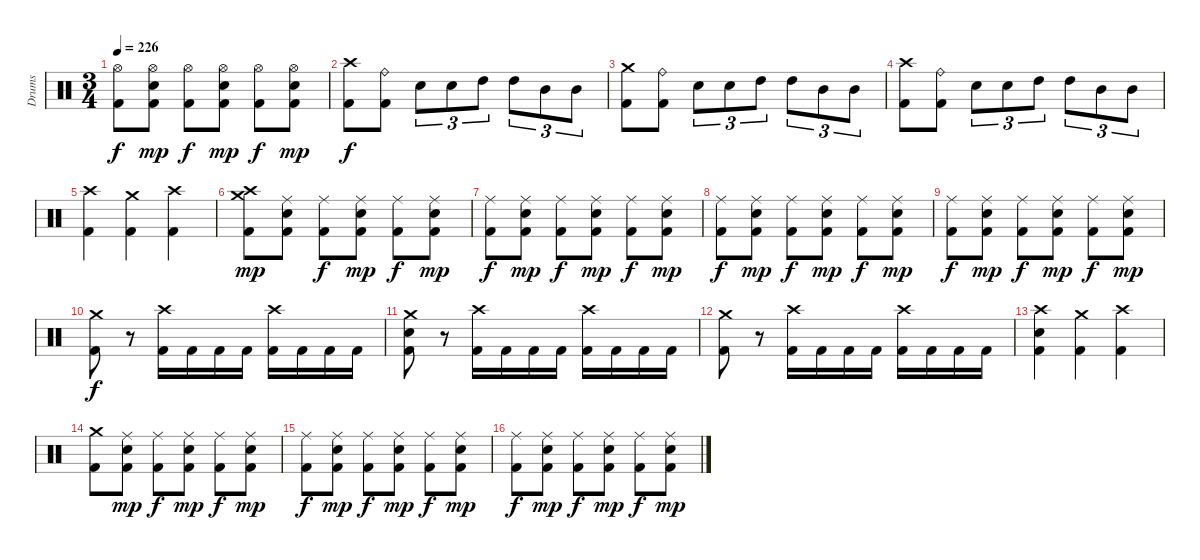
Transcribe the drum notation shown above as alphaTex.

\track ("Drums" "Drums") {instrument percussion}
\staff {score}
\articulation defaults
\ts (3 4)
\tempo 226
\clef neutral
\ks c
("Hi-Hat (open)" "Kick (hit) 2").8{dy f} ("Hi-Hat (open)" "Electric Snare (hit)" "Kick (hit) 2").8{dy mp} ("Hi-Hat (open)" "Kick (hit) 2").8{dy f} ("Hi-Hat (open)" "Electric Snare (hit)" "Kick (hit) 2").8{dy mp} ("Hi-Hat (open)" "Kick (hit) 2").8{dy f} ("Hi-Hat (open)" "Electric Snare (hit)" "Kick (hit) 2").8{dy mp} |
("Crash high (hit)" "Kick (hit) 2").8{dy f} ("Ride (bell)" "Kick (hit) 2").8 "Electric Snare (hit)".8{tu (3 2)} "Electric Snare (hit)".8{tu (3 2)} "High Tom (hit)".8{tu (3 2)} "High Tom (hit)".8{tu (3 2)} "Mid Tom (hit)".8{tu (3 2)} "Mid Tom (hit)".8{tu (3 2)} |
("Crash medium (hit)" "Kick (hit) 2").8 ("Ride (bell)" "Kick (hit) 2").8 "Electric Snare (hit)".8{tu (3 2)} "Electric Snare (hit)".8{tu (3 2)} "High Tom (hit)".8{tu (3 2)} "High Tom (hit)".8{tu (3 2)} "Mid Tom (hit)".8{tu (3 2)} "Mid Tom (hit)".8{tu (3 2)} |
("Crash high (hit)" "Kick (hit) 2").8 ("Ride (bell)" "Kick (hit) 2").8 "Electric Snare (hit)".8{tu (3 2)} "Electric Snare (hit)".8{tu (3 2)} "High Tom (hit)".8{tu (3 2)} "High Tom (hit)".8{tu (3 2)} "Mid Tom (hit)".8{tu (3 2)} "Mid Tom (hit)".8{tu (3 2)} |
("Crash high (hit)" "Kick (hit) 2").4 ("Crash medium (hit)" "Kick (hit) 2").4 ("Crash high (hit)" "Kick (hit) 2").4 |
("Crash high (hit)" "Crash medium (hit)" "Kick (hit) 2").8{dy mp} ("Ride (middle)" "Electric Snare (hit)" "Kick (hit) 2").8 ("Ride (middle)" "Kick (hit) 2").8{dy f} ("Ride (middle)" "Electric Snare (hit)" "Kick (hit) 2").8{dy mp} ("Ride (middle)" "Kick (hit) 2").8{dy f} ("Ride (middle)" "Electric Snare (hit)" "Kick (hit) 2").8{dy mp} |
("Ride (middle)" "Kick (hit) 2").8{dy f} ("Ride (middle)" "Electric Snare (hit)" "Kick (hit) 2").8{dy mp} ("Ride (middle)" "Kick (hit) 2").8{dy f} ("Ride (middle)" "Electric Snare (hit)" "Kick (hit) 2").8{dy mp} ("Ride (middle)" "Kick (hit) 2").8{dy f} ("Ride (middle)" "Electric Snare (hit)" "Kick (hit) 2").8{dy mp} |
("Ride (middle)" "Kick (hit) 2").8{dy f} ("Ride (middle)" "Electric Snare (hit)" "Kick (hit) 2").8{dy mp} ("Ride (middle)" "Kick (hit) 2").8{dy f} ("Ride (middle)" "Electric Snare (hit)" "Kick (hit) 2").8{dy mp} ("Ride (middle)" "Kick (hit) 2").8{dy f} ("Ride (middle)" "Electric Snare (hit)" "Kick (hit) 2").8{dy mp} |
("Ride (middle)" "Kick (hit) 2").8{dy f} ("Ride (middle)" "Electric Snare (hit)" "Kick (hit) 2").8{dy mp} ("Ride (middle)" "Kick (hit) 2").8{dy f} ("Ride (middle)" "Electric Snare (hit)" "Kick (hit) 2").8{dy mp} ("Ride (middle)" "Kick (hit) 2").8{dy f} ("Ride (middle)" "Electric Snare (hit)" "Kick (hit) 2").8{dy mp} |
("Crash medium (hit)" "Kick (hit) 2").8{dy f} r.8 ("Crash high (hit)" "Kick (hit) 2").16 "Kick (hit) 2".16 "Kick (hit) 2".16 "Kick (hit) 2".16 ("Crash high (hit)" "Kick (hit) 2").16 "Kick (hit) 2".16 "Kick (hit) 2".16 "Kick (hit) 2".16 |
("Crash medium (hit)" "Electric Snare (hit)" "Kick (hit) 2").8 r.8 ("Crash high (hit)" "Kick (hit) 2").16 "Kick (hit) 2".16 "Kick (hit) 2".16 "Kick (hit) 2".16 ("Crash high (hit)" "Kick (hit) 2").16 "Kick (hit) 2".16 "Kick (hit) 2".16 "Kick (hit) 2".16 |
("Crash medium (hit)" "Kick (hit) 2").8 r.8 ("Crash high (hit)" "Kick (hit) 2").16 "Kick (hit) 2".16 "Kick (hit) 2".16 "Kick (hit) 2".16 ("Crash high (hit)" "Kick (hit) 2").16 "Kick (hit) 2".16 "Kick (hit) 2".16 "Kick (hit) 2".16 |
("Crash high (hit)" "Electric Snare (hit)" "Kick (hit) 2").4 ("Crash medium (hit)" "Kick (hit) 2").4 ("Crash high (hit)" "Kick (hit) 2").4 |
("Crash medium (hit)" "Kick (hit) 2").8 ("Ride (middle)" "Electric Snare (hit)" "Kick (hit) 2").8{dy mp} ("Ride (middle)" "Kick (hit) 2").8{dy f} ("Ride (middle)" "Electric Snare (hit)" "Kick (hit) 2").8{dy mp} ("Ride (middle)" "Kick (hit) 2").8{dy f} ("Ride (middle)" "Electric Snare (hit)" "Kick (hit) 2").8{dy mp} |
("Ride (middle)" "Kick (hit) 2").8{dy f} ("Ride (middle)" "Electric Snare (hit)" "Kick (hit) 2").8{dy mp} ("Ride (middle)" "Kick (hit) 2").8{dy f} ("Ride (middle)" "Electric Snare (hit)" "Kick (hit) 2").8{dy mp} ("Ride (middle)" "Kick (hit) 2").8{dy f} ("Ride (middle)" "Electric Snare (hit)" "Kick (hit) 2").8{dy mp} |
("Ride (middle)" "Kick (hit) 2").8{dy f} ("Ride (middle)" "Electric Snare (hit)" "Kick (hit) 2").8{dy mp} ("Ride (middle)" "Kick (hit) 2").8{dy f} ("Ride (middle)" "Electric Snare (hit)" "Kick (hit) 2").8{dy mp} ("Ride (middle)" "Kick (hit) 2").8{dy f} ("Ride (middle)" "Electric Snare (hit)" "Kick (hit) 2").8{dy mp}
